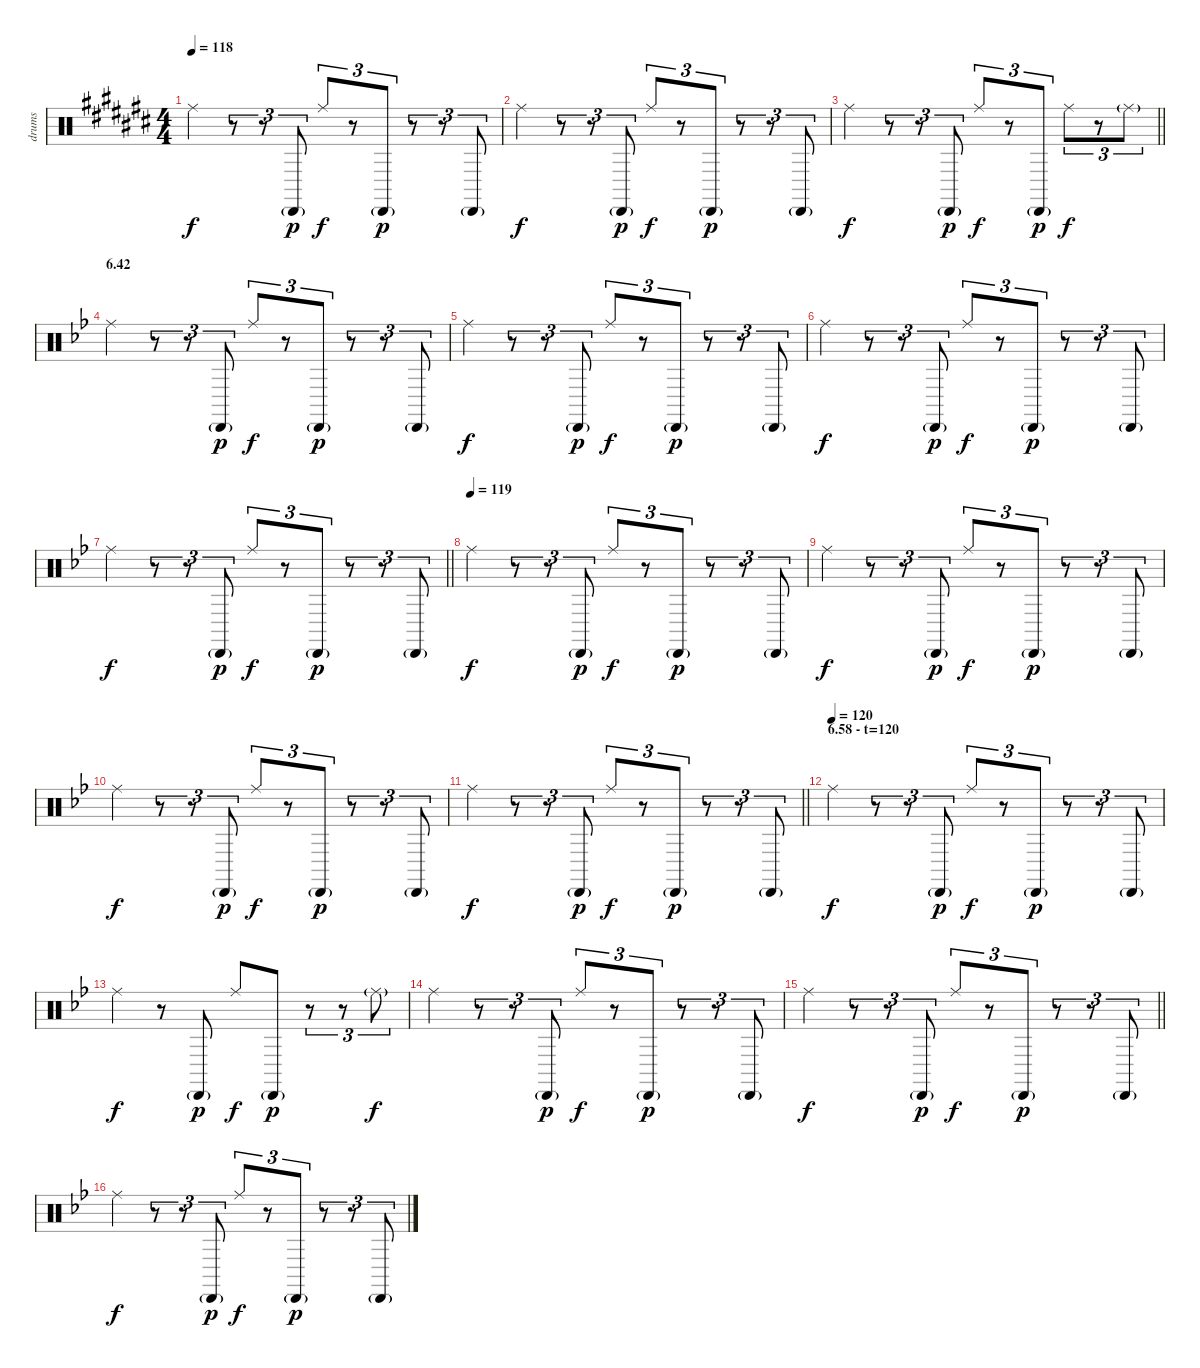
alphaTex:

\track ("drums" "drums") {instrument percussion}
\staff {score}
\articulation defaults
\ts (4 4)
\tempo 118
\clef neutral
\ks c# "Ride (middle)".4{dy f}
r.8{tu (3 2)} r.8{tu (3 2)} "Cabasa (hit)"{g}.8{tu (3 2) dy p} "Ride (middle)".8{tu (3 2) dy f} r.8{tu (3 2)} "Cabasa (hit)"{g}.8{tu (3 2) dy p} r.8{tu (3 2)} r.8{tu (3 2)} "Cabasa (hit)"{g}.8{tu (3 2)} |
"Ride (middle)".4{dy f} r.8{tu (3 2)} r.8{tu (3 2)} "Cabasa (hit)"{g}.8{tu (3 2) dy p} "Ride (middle)".8{tu (3 2) dy f} r.8{tu (3 2)} "Cabasa (hit)"{g}.8{tu (3 2) dy p} r.8{tu (3 2)} r.8{tu (3 2)} "Cabasa (hit)"{g}.8{tu (3 2)} |
\barLineRight lightlight "Ride (middle)".4{dy f}
r.8{tu (3 2)} r.8{tu (3 2)} "Cabasa (hit)"{g}.8{tu (3 2) dy p} "Ride (middle)".8{tu (3 2) dy f} r.8{tu (3 2)} "Cabasa (hit)"{g}.8{tu (3 2) dy p} "Ride (middle)".8{tu (3 2) dy f} r.8{tu (3 2)} "Ride (middle)"{g}.8{tu (3 2)} |
\section ("" "6.42")
\ks bb "Ride (middle)".4
r.8{tu (3 2)} r.8{tu (3 2)} "Cabasa (hit)"{g}.8{tu (3 2) dy p} "Ride (middle)".8{tu (3 2) dy f} r.8{tu (3 2)} "Cabasa (hit)"{g}.8{tu (3 2) dy p} r.8{tu (3 2)} r.8{tu (3 2)} "Cabasa (hit)"{g}.8{tu (3 2)} |
"Ride (middle)".4{dy f} r.8{tu (3 2)} r.8{tu (3 2)} "Cabasa (hit)"{g}.8{tu (3 2) dy p} "Ride (middle)".8{tu (3 2) dy f} r.8{tu (3 2)} "Cabasa (hit)"{g}.8{tu (3 2) dy p} r.8{tu (3 2)} r.8{tu (3 2)} "Cabasa (hit)"{g}.8{tu (3 2)} |
"Ride (middle)".4{dy f} r.8{tu (3 2)} r.8{tu (3 2)} "Cabasa (hit)"{g}.8{tu (3 2) dy p} "Ride (middle)".8{tu (3 2) dy f} r.8{tu (3 2)} "Cabasa (hit)"{g}.8{tu (3 2) dy p} r.8{tu (3 2)} r.8{tu (3 2)} "Cabasa (hit)"{g}.8{tu (3 2)} |
\barLineRight lightlight "Ride (middle)".4{dy f}
r.8{tu (3 2)} r.8{tu (3 2)} "Cabasa (hit)"{g}.8{tu (3 2) dy p} "Ride (middle)".8{tu (3 2) dy f} r.8{tu (3 2)} "Cabasa (hit)"{g}.8{tu (3 2) dy p} r.8{tu (3 2)} r.8{tu (3 2)} "Cabasa (hit)"{g}.8{tu (3 2)} |
\tempo (119)
"Ride (middle)".4{dy f} r.8{tu (3 2)} r.8{tu (3 2)} "Cabasa (hit)"{g}.8{tu (3 2) dy p} "Ride (middle)".8{tu (3 2) dy f} r.8{tu (3 2)} "Cabasa (hit)"{g}.8{tu (3 2) dy p} r.8{tu (3 2)} r.8{tu (3 2)} "Cabasa (hit)"{g}.8{tu (3 2)} |
"Ride (middle)".4{dy f} r.8{tu (3 2)} r.8{tu (3 2)} "Cabasa (hit)"{g}.8{tu (3 2) dy p} "Ride (middle)".8{tu (3 2) dy f} r.8{tu (3 2)} "Cabasa (hit)"{g}.8{tu (3 2) dy p} r.8{tu (3 2)} r.8{tu (3 2)} "Cabasa (hit)"{g}.8{tu (3 2)} |
"Ride (middle)".4{dy f} r.8{tu (3 2)} r.8{tu (3 2)} "Cabasa (hit)"{g}.8{tu (3 2) dy p} "Ride (middle)".8{tu (3 2) dy f} r.8{tu (3 2)} "Cabasa (hit)"{g}.8{tu (3 2) dy p} r.8{tu (3 2)} r.8{tu (3 2)} "Cabasa (hit)"{g}.8{tu (3 2)} |
\barLineRight lightlight "Ride (middle)".4{dy f}
r.8{tu (3 2)} r.8{tu (3 2)} "Cabasa (hit)"{g}.8{tu (3 2) dy p} "Ride (middle)".8{tu (3 2) dy f} r.8{tu (3 2)} "Cabasa (hit)"{g}.8{tu (3 2) dy p} r.8{tu (3 2)} r.8{tu (3 2)} "Cabasa (hit)"{g}.8{tu (3 2)} |
\section ("" "6.58 - t=120")
\tempo (120)
"Ride (middle)".4{dy f} r.8{tu (3 2)} r.8{tu (3 2)} "Cabasa (hit)"{g}.8{tu (3 2) dy p} "Ride (middle)".8{tu (3 2) dy f} r.8{tu (3 2)} "Cabasa (hit)"{g}.8{tu (3 2) dy p} r.8{tu (3 2)} r.8{tu (3 2)} "Cabasa (hit)"{g}.8{tu (3 2)} |
"Ride (middle)".4{dy f} r.8 "Cabasa (hit)"{g}.8{dy p} "Ride (middle)".8{dy f} "Cabasa (hit)"{g}.8{dy p} r.8{tu (3 2)} r.8{tu (3 2)} "Ride (middle)"{g}.8{tu (3 2) dy f} |
"Ride (middle)".4 r.8{tu (3 2)} r.8{tu (3 2)} "Cabasa (hit)"{g}.8{tu (3 2) dy p} "Ride (middle)".8{tu (3 2) dy f} r.8{tu (3 2)} "Cabasa (hit)"{g}.8{tu (3 2) dy p} r.8{tu (3 2)} r.8{tu (3 2)} "Cabasa (hit)"{g}.8{tu (3 2)} |
\barLineRight lightlight "Ride (middle)".4{dy f}
r.8{tu (3 2)} r.8{tu (3 2)} "Cabasa (hit)"{g}.8{tu (3 2) dy p} "Ride (middle)".8{tu (3 2) dy f} r.8{tu (3 2)} "Cabasa (hit)"{g}.8{tu (3 2) dy p} r.8{tu (3 2)} r.8{tu (3 2)} "Cabasa (hit)"{g}.8{tu (3 2)} |
"Ride (middle)".4{dy f} r.8{tu (3 2)} r.8{tu (3 2)} "Cabasa (hit)"{g}.8{tu (3 2) dy p} "Ride (middle)".8{tu (3 2) dy f} r.8{tu (3 2)} "Cabasa (hit)"{g}.8{tu (3 2) dy p} r.8{tu (3 2)} r.8{tu (3 2)} "Cabasa (hit)"{g}.8{tu (3 2)}
